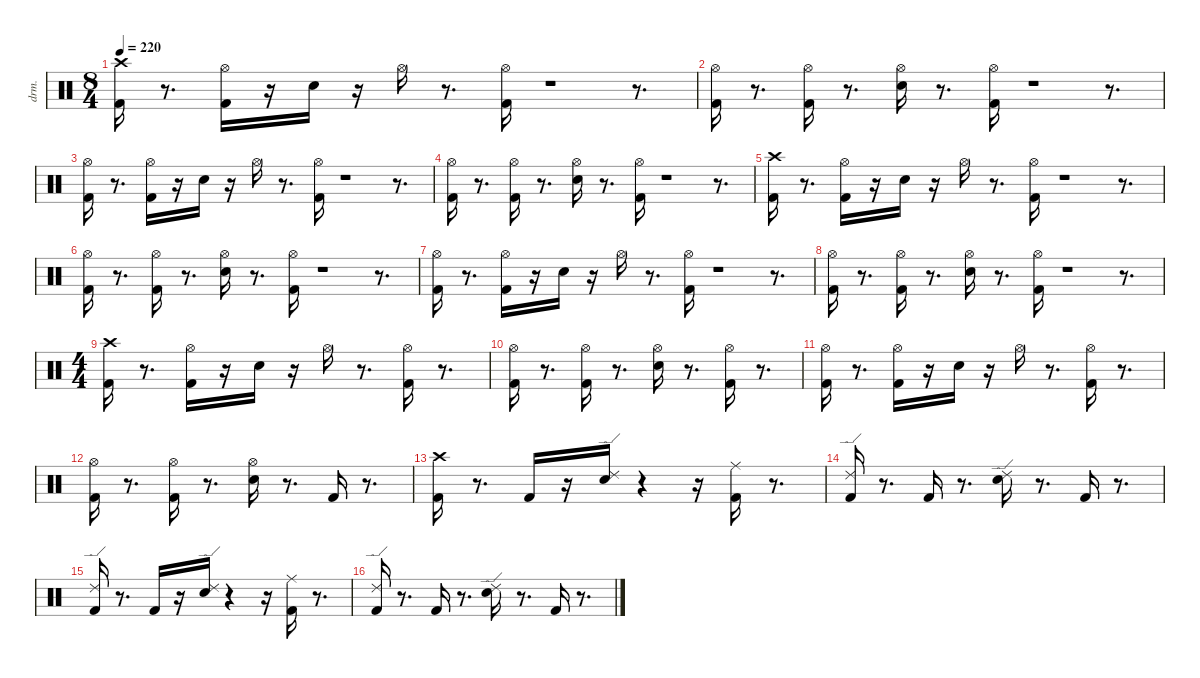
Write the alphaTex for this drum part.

\defaultSystemsLayout 4
\hideDynamics
\bracketExtendMode nobrackets
\otherSystemsTrackNameOrientation horizontal
\track ("EZdrummer 3" "drm.") {instrument percussion}
\staff {score}
\articulation defaults
\ts (8 4)
\tempo 220
\clef neutral
\ks c
("Kick (hit) 2" "Crash high (hit)"{acc #}).16{dy fff beam Down} r.8{d beam Down} ("Kick (hit) 2" "Hi-Hat (open)"{acc #}).16{dy ff beam Down} r.16{beam Down} "Snare (hit) 2".16{beam Down} r.16{beam Down} "Hi-Hat (open)"{acc #}.16{beam Down} r.8{d beam Down} ("Kick (hit) 2" "Hi-Hat (open)"{acc #}).16{beam Down} r.1{beam Down} r.8{d beam Down} |
("Kick (hit) 2" "Hi-Hat (open)"{acc #}).16{beam Down} r.8{d beam Down} ("Kick (hit) 2" "Hi-Hat (open)"{acc #}).16{beam Down} r.8{d beam Down} ("Snare (hit) 2" "Hi-Hat (open)"{acc #}).16{beam Down} r.8{d beam Down} ("Kick (hit) 2" "Hi-Hat (open)"{acc #}).16{dy mf beam Down} r.1{beam Down} r.8{d beam Down} |
("Kick (hit) 2" "Hi-Hat (open)"{acc #}).16{dy fff beam Down} r.8{d beam Down} ("Kick (hit) 2" "Hi-Hat (open)"{acc #}).16{dy ff beam Down} r.16{beam Down} "Snare (hit) 2".16{beam Down} r.16{beam Down} "Hi-Hat (open)"{acc #}.16{beam Down} r.8{d beam Down} ("Kick (hit) 2" "Hi-Hat (open)"{acc #}).16{beam Down} r.1{beam Down} r.8{d beam Down} |
("Kick (hit) 2" "Hi-Hat (open)"{acc #}).16{beam Down} r.8{d beam Down} ("Kick (hit) 2" "Hi-Hat (open)"{acc #}).16{beam Down} r.8{d beam Down} ("Snare (hit) 2" "Hi-Hat (open)"{acc #}).16{beam Down} r.8{d beam Down} ("Kick (hit) 2" "Hi-Hat (open)"{acc #}).16{dy mf beam Down} r.1{beam Down} r.8{d beam Down} |
("Kick (hit) 2" "Crash high (hit)"{acc #}).16{dy fff beam Down} r.8{d beam Down} ("Kick (hit) 2" "Hi-Hat (open)"{acc #}).16{dy ff beam Down} r.16{beam Down} "Snare (hit) 2".16{beam Down} r.16{beam Down} "Hi-Hat (open)"{acc #}.16{beam Down} r.8{d beam Down} ("Kick (hit) 2" "Hi-Hat (open)"{acc #}).16{beam Down} r.1{beam Down} r.8{d beam Down} |
("Kick (hit) 2" "Hi-Hat (open)"{acc #}).16{beam Down} r.8{d beam Down} ("Kick (hit) 2" "Hi-Hat (open)"{acc #}).16{beam Down} r.8{d beam Down} ("Snare (hit) 2" "Hi-Hat (open)"{acc #}).16{beam Down} r.8{d beam Down} ("Kick (hit) 2" "Hi-Hat (open)"{acc #}).16{dy mf beam Down} r.1{beam Down} r.8{d beam Down} |
("Kick (hit) 2" "Hi-Hat (open)"{acc #}).16{dy fff beam Down} r.8{d beam Down} ("Kick (hit) 2" "Hi-Hat (open)"{acc #}).16{dy ff beam Down} r.16{beam Down} "Snare (hit) 2".16{beam Down} r.16{beam Down} "Hi-Hat (open)"{acc #}.16{beam Down} r.8{d beam Down} ("Kick (hit) 2" "Hi-Hat (open)"{acc #}).16{beam Down} r.1{beam Down} r.8{d beam Down} |
("Kick (hit) 2" "Hi-Hat (open)"{acc #}).16{beam Down} r.8{d beam Down} ("Kick (hit) 2" "Hi-Hat (open)"{acc #}).16{beam Down} r.8{d beam Down} ("Snare (hit) 2" "Hi-Hat (open)"{acc #}).16{beam Down} r.8{d beam Down} ("Kick (hit) 2" "Hi-Hat (open)"{acc #}).16{dy mf beam Down} r.1{beam Down} r.8{d beam Down} |
\ts (4 4)
("Kick (hit) 2" "Crash high (hit)"{acc #}).16{dy fff beam Down} r.8{d beam Down} ("Kick (hit) 2" "Hi-Hat (open)"{acc #}).16{dy ff beam Down} r.16{beam Down} "Snare (hit) 2".16{beam Down} r.16{beam Down} "Hi-Hat (open)"{acc #}.16{beam Down} r.8{d beam Down} ("Kick (hit) 2" "Hi-Hat (open)"{acc #}).16{beam Down} r.8{d beam Down} |
("Kick (hit) 2" "Hi-Hat (open)"{acc #}).16{beam Down} r.8{d beam Down} ("Kick (hit) 2" "Hi-Hat (open)"{acc #}).16{beam Down} r.8{d beam Down} ("Snare (hit) 2" "Hi-Hat (open)"{acc #}).16{beam Down} r.8{d beam Down} ("Kick (hit) 2" "Hi-Hat (open)"{acc #}).16{dy mf beam Down} r.8{d beam Down} |
("Kick (hit) 2" "Hi-Hat (open)"{acc #}).16{dy fff beam Down} r.8{d beam Down} ("Kick (hit) 2" "Hi-Hat (open)"{acc #}).16{dy ff beam Down} r.16{beam Down} "Snare (hit) 2".16{beam Down} r.16{beam Down} "Hi-Hat (open)"{acc #}.16{beam Down} r.8{d beam Down} ("Kick (hit) 2" "Hi-Hat (open)"{acc #}).16{beam Down} r.8{d beam Down} |
("Kick (hit) 2" "Hi-Hat (open)"{acc #}).16{beam Down} r.8{d beam Down} ("Kick (hit) 2" "Hi-Hat (open)"{acc #}).16{beam Down} r.8{d beam Down} ("Snare (hit) 2" "Hi-Hat (open)"{acc #}).16{beam Down} r.8{d beam Down} "Kick (hit) 2".16{dy mf beam Up} r.8{d beam Up} |
("Kick (hit) 2" "Crash high (hit)"{acc #}).16{dy fff beam Down} r.8{d beam Down} "Kick (hit) 2".16{dy ff beam Up} r.16{beam Up} ("Snare (hit) 2" "Ride (edge) 2").16{beam Down} r.4{beam Down} r.16{beam Down} ("Kick (hit) 2" "Ride (middle)"{acc #}).16{dy f beam Down} r.8{d beam Down} |
("Kick (hit) 2" "Ride (edge) 2").16{dy ff beam Up} r.8{d beam Up} "Kick (hit) 2".16{dy f beam Up} r.8{d beam Up} ("Snare (hit) 2" "Ride (edge) 2").16{dy ff beam Down} r.8{d beam Down} "Kick (hit) 2".16{dy mf beam Up} r.8{d beam Up} |
("Kick (hit) 2" "Ride (edge) 2").16{dy fff beam Up} r.8{d beam Up} "Kick (hit) 2".16{dy ff beam Up} r.16{beam Up} ("Snare (hit) 2" "Ride (edge) 2").16{beam Down} r.4{beam Down} r.16{beam Down} ("Kick (hit) 2" "Ride (middle)"{acc #}).16{dy f beam Down} r.8{d beam Down} |
("Kick (hit) 2" "Ride (edge) 2").16{dy ff beam Up} r.8{d beam Up} "Kick (hit) 2".16{dy f beam Up} r.8{d beam Up} ("Snare (hit) 2" "Ride (edge) 2").16{dy ff beam Down} r.8{d beam Down} "Kick (hit) 2".16{dy mf beam Up} r.8{d beam Up}
